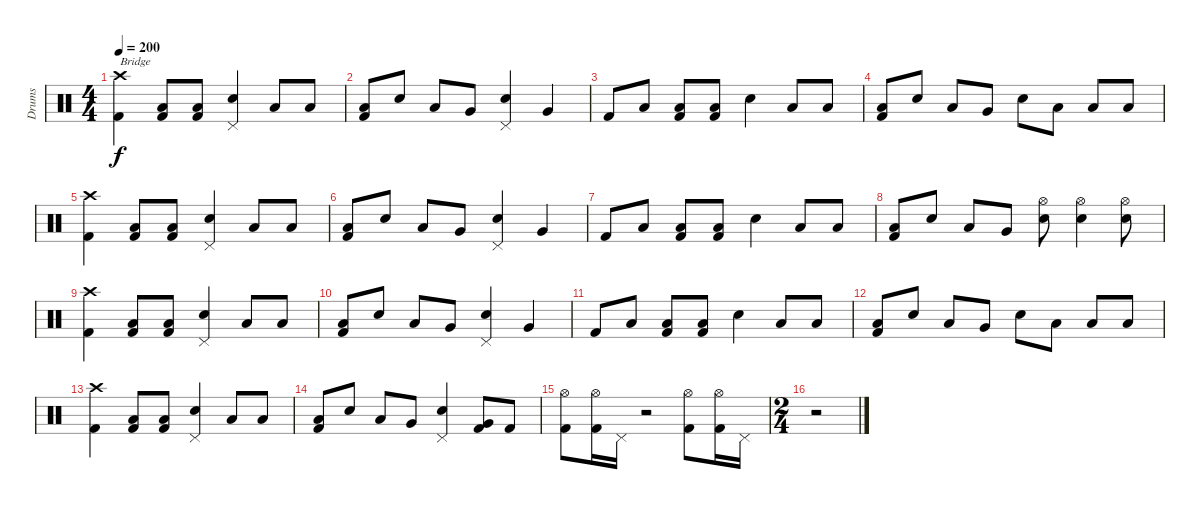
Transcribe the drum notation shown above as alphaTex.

\track ("Drums" "Drums") {instrument percussion}
\staff {score}
\articulation defaults
\ts (4 4)
\tempo 200
\clef neutral
\ks c
("Crash high (hit)" "Kick (hit) 2").4{txt "Bridge" dy f} ("Low Floor Tom (hit)" "Kick (hit) 2").8 ("Low Floor Tom (hit)" "Kick (hit) 2").8 ("Pedal Hi-Hat (hit)" "Electric Snare (hit)").4 "Low Tom (hit)".8 "Low Floor Tom (hit)".8 |
("Low Floor Tom (hit)" "Kick (hit) 2").8 "Electric Snare (hit)".8 "Low Tom (hit)".8 "Very Low Tom (hit)".8 ("Pedal Hi-Hat (hit)" "Electric Snare (hit)").4 "Very Low Tom (hit)".4 |
"Kick (hit) 2".8 "Low Floor Tom (hit)".8 ("Low Floor Tom (hit)" "Kick (hit) 2").8 ("Low Floor Tom (hit)" "Kick (hit) 2").8 "Electric Snare (hit)".4 "Low Tom (hit)".8 "Low Floor Tom (hit)".8 |
("Low Floor Tom (hit)" "Kick (hit) 2").8 "Electric Snare (hit)".8 "Low Tom (hit)".8 "Very Low Tom (hit)".8 "Electric Snare (hit)".8 "Low Floor Tom (hit)".8 "Low Floor Tom (hit)".8 "Low Floor Tom (hit)".8 |
("Crash high (hit)" "Kick (hit) 2").4 ("Low Floor Tom (hit)" "Kick (hit) 2").8 ("Low Floor Tom (hit)" "Kick (hit) 2").8 ("Pedal Hi-Hat (hit)" "Electric Snare (hit)").4 "Low Tom (hit)".8 "Low Floor Tom (hit)".8 |
("Low Floor Tom (hit)" "Kick (hit) 2").8 "Electric Snare (hit)".8 "Low Tom (hit)".8 "Very Low Tom (hit)".8 ("Pedal Hi-Hat (hit)" "Electric Snare (hit)").4 "Very Low Tom (hit)".4 |
"Kick (hit) 2".8 "Low Floor Tom (hit)".8 ("Low Floor Tom (hit)" "Kick (hit) 2").8 ("Low Floor Tom (hit)" "Kick (hit) 2").8 "Electric Snare (hit)".4 "Low Tom (hit)".8 "Low Floor Tom (hit)".8 |
("Low Floor Tom (hit)" "Kick (hit) 2").8 "Electric Snare (hit)".8 "Low Tom (hit)".8 "Very Low Tom (hit)".8 ("Hi-Hat (open)" "Electric Snare (hit)").8 ("Hi-Hat (open)" "Electric Snare (hit)").4 ("Hi-Hat (open)" "Electric Snare (hit)").8 |
("Crash high (hit)" "Kick (hit) 2").4 ("Low Floor Tom (hit)" "Kick (hit) 2").8 ("Low Floor Tom (hit)" "Kick (hit) 2").8 ("Pedal Hi-Hat (hit)" "Electric Snare (hit)").4 "Low Tom (hit)".8 "Low Floor Tom (hit)".8 |
("Low Floor Tom (hit)" "Kick (hit) 2").8 "Electric Snare (hit)".8 "Low Tom (hit)".8 "Very Low Tom (hit)".8 ("Pedal Hi-Hat (hit)" "Electric Snare (hit)").4 "Very Low Tom (hit)".4 |
"Kick (hit) 2".8 "Low Floor Tom (hit)".8 ("Low Floor Tom (hit)" "Kick (hit) 2").8 ("Low Floor Tom (hit)" "Kick (hit) 2").8 "Electric Snare (hit)".4 "Low Tom (hit)".8 "Low Floor Tom (hit)".8 |
("Low Floor Tom (hit)" "Kick (hit) 2").8 "Electric Snare (hit)".8 "Low Tom (hit)".8 "Very Low Tom (hit)".8 "Electric Snare (hit)".8 "Low Floor Tom (hit)".8 "Low Floor Tom (hit)".8 "Low Floor Tom (hit)".8 |
("Crash high (hit)" "Kick (hit) 2").4 ("Low Floor Tom (hit)" "Kick (hit) 2").8 ("Low Floor Tom (hit)" "Kick (hit) 2").8 ("Pedal Hi-Hat (hit)" "Electric Snare (hit)").4 "Low Tom (hit)".8 "Low Floor Tom (hit)".8 |
("Low Floor Tom (hit)" "Kick (hit) 2").8 "Electric Snare (hit)".8 "Low Tom (hit)".8 "Very Low Tom (hit)".8 ("Pedal Hi-Hat (hit)" "Electric Snare (hit)").4 ("Very Low Tom (hit)" "Kick (hit) 2").8 "Kick (hit) 2".8 |
("Hi-Hat (open)" "Kick (hit) 2").8 ("Hi-Hat (open)" "Kick (hit) 2").16 "Pedal Hi-Hat (hit)".16 r.2 ("Hi-Hat (open)" "Kick (hit) 2").8 ("Hi-Hat (open)" "Kick (hit) 2").16 "Pedal Hi-Hat (hit)".16 |
\ts (2 4)
r.2
